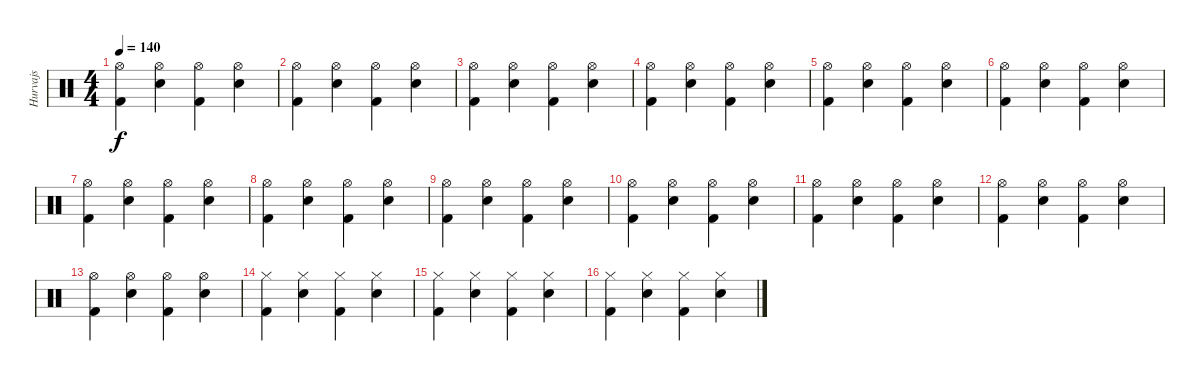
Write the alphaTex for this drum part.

\track ("Hurvajs" "Hurvajs") {instrument percussion}
\staff {score}
\articulation defaults
\ts (4 4)
\tempo 140
\clef neutral
\ks c
("Hi-Hat (open)" "Kick (hit) 2").4{dy f} ("Hi-Hat (open)" "Snare (hit) 2").4 ("Hi-Hat (open)" "Kick (hit) 2").4 ("Hi-Hat (open)" "Snare (hit) 2").4 |
("Hi-Hat (open)" "Kick (hit) 2").4 ("Hi-Hat (open)" "Snare (hit) 2").4 ("Hi-Hat (open)" "Kick (hit) 2").4 ("Hi-Hat (open)" "Snare (hit) 2").4 |
("Hi-Hat (open)" "Kick (hit) 2").4 ("Hi-Hat (open)" "Snare (hit) 2").4 ("Hi-Hat (open)" "Kick (hit) 2").4 ("Hi-Hat (open)" "Snare (hit) 2").4 |
("Hi-Hat (open)" "Kick (hit) 2").4 ("Hi-Hat (open)" "Snare (hit) 2").4 ("Hi-Hat (open)" "Kick (hit) 2").4 ("Hi-Hat (open)" "Snare (hit) 2").4 |
("Hi-Hat (open)" "Kick (hit) 2").4 ("Hi-Hat (open)" "Snare (hit) 2").4 ("Hi-Hat (open)" "Kick (hit) 2").4 ("Hi-Hat (open)" "Snare (hit) 2").4 |
("Hi-Hat (open)" "Kick (hit) 2").4 ("Hi-Hat (open)" "Snare (hit) 2").4 ("Hi-Hat (open)" "Kick (hit) 2").4 ("Hi-Hat (open)" "Snare (hit) 2").4 |
("Hi-Hat (open)" "Kick (hit) 2").4 ("Hi-Hat (open)" "Snare (hit) 2").4 ("Hi-Hat (open)" "Kick (hit) 2").4 ("Hi-Hat (open)" "Snare (hit) 2").4 |
("Hi-Hat (open)" "Kick (hit) 2").4 ("Hi-Hat (open)" "Snare (hit) 2").4 ("Hi-Hat (open)" "Kick (hit) 2").4 ("Hi-Hat (open)" "Snare (hit) 2").4 |
("Hi-Hat (open)" "Kick (hit) 2").4 ("Hi-Hat (open)" "Snare (hit) 2").4 ("Hi-Hat (open)" "Kick (hit) 2").4 ("Hi-Hat (open)" "Snare (hit) 2").4 |
("Hi-Hat (open)" "Kick (hit) 2").4 ("Hi-Hat (open)" "Snare (hit) 2").4 ("Hi-Hat (open)" "Kick (hit) 2").4 ("Hi-Hat (open)" "Snare (hit) 2").4 |
("Hi-Hat (open)" "Kick (hit) 2").4 ("Hi-Hat (open)" "Snare (hit) 2").4 ("Hi-Hat (open)" "Kick (hit) 2").4 ("Hi-Hat (open)" "Snare (hit) 2").4 |
("Hi-Hat (open)" "Kick (hit) 2").4 ("Hi-Hat (open)" "Snare (hit) 2").4 ("Hi-Hat (open)" "Kick (hit) 2").4 ("Hi-Hat (open)" "Snare (hit) 2").4 |
("Hi-Hat (open)" "Kick (hit) 2").4 ("Hi-Hat (open)" "Snare (hit) 2").4 ("Hi-Hat (open)" "Kick (hit) 2").4 ("Hi-Hat (open)" "Snare (hit) 2").4 |
("Hi-Hat (closed)" "Kick (hit) 2").4 ("Hi-Hat (closed)" "Snare (hit) 2").4 ("Hi-Hat (closed)" "Kick (hit) 2").4 ("Hi-Hat (closed)" "Snare (hit) 2").4 |
("Hi-Hat (closed)" "Kick (hit) 2").4 ("Hi-Hat (closed)" "Snare (hit) 2").4 ("Hi-Hat (closed)" "Kick (hit) 2").4 ("Hi-Hat (closed)" "Snare (hit) 2").4 |
("Hi-Hat (closed)" "Kick (hit) 2").4 ("Hi-Hat (closed)" "Snare (hit) 2").4 ("Hi-Hat (closed)" "Kick (hit) 2").4 ("Hi-Hat (closed)" "Snare (hit) 2").4
